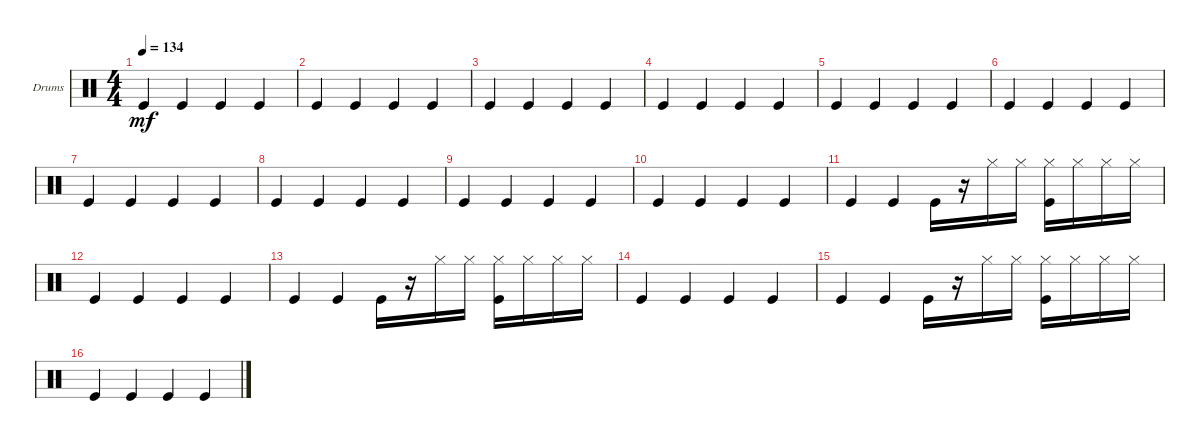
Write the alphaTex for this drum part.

\defaultSystemsLayout 4
\bracketExtendMode groupsimilarinstruments
\firstSystemTrackNameOrientation horizontal
\otherSystemsTrackNameOrientation horizontal
\track ("Drumkit" "Drums") {instrument percussion}
\staff {score}
\articulation defaults
\ts (4 4)
\tempo 134
\clef neutral
\ks c "Kick (hit)".4{dy mf} "Kick (hit)".4 "Kick (hit)".4 "Kick (hit)".4
|
"Kick (hit)".4 "Kick (hit)".4 "Kick (hit)".4 "Kick (hit)".4 |
"Kick (hit)".4 "Kick (hit)".4 "Kick (hit)".4 "Kick (hit)".4 |
"Kick (hit)".4 "Kick (hit)".4 "Kick (hit)".4 "Kick (hit)".4 |
"Kick (hit)".4 "Kick (hit)".4 "Kick (hit)".4 "Kick (hit)".4 |
"Kick (hit)".4 "Kick (hit)".4 "Kick (hit)".4 "Kick (hit)".4 |
"Kick (hit)".4 "Kick (hit)".4 "Kick (hit)".4 "Kick (hit)".4 |
"Kick (hit)".4 "Kick (hit)".4 "Kick (hit)".4 "Kick (hit)".4 |
"Kick (hit)".4 "Kick (hit)".4 "Kick (hit)".4 "Kick (hit)".4 |
"Kick (hit)".4 "Kick (hit)".4 "Kick (hit)".4 "Kick (hit)".4 |
"Kick (hit)".4 "Kick (hit)".4 "Kick (hit)".16 r.16 "Hi-Hat (closed)".16 "Hi-Hat (closed)".16 ("Hi-Hat (closed)" "Kick (hit)").16 "Hi-Hat (closed)".16 "Hi-Hat (closed)".16 "Hi-Hat (closed)".16 |
"Kick (hit)".4 "Kick (hit)".4 "Kick (hit)".4 "Kick (hit)".4 |
"Kick (hit)".4 "Kick (hit)".4 "Kick (hit)".16 r.16 "Hi-Hat (closed)".16 "Hi-Hat (closed)".16 ("Hi-Hat (closed)" "Kick (hit)").16 "Hi-Hat (closed)".16 "Hi-Hat (closed)".16 "Hi-Hat (closed)".16 |
"Kick (hit)".4 "Kick (hit)".4 "Kick (hit)".4 "Kick (hit)".4 |
"Kick (hit)".4 "Kick (hit)".4 "Kick (hit)".16 r.16 "Hi-Hat (closed)".16 "Hi-Hat (closed)".16 ("Hi-Hat (closed)" "Kick (hit)").16 "Hi-Hat (closed)".16 "Hi-Hat (closed)".16 "Hi-Hat (closed)".16 |
"Kick (hit)".4 "Kick (hit)".4 "Kick (hit)".4 "Kick (hit)".4
